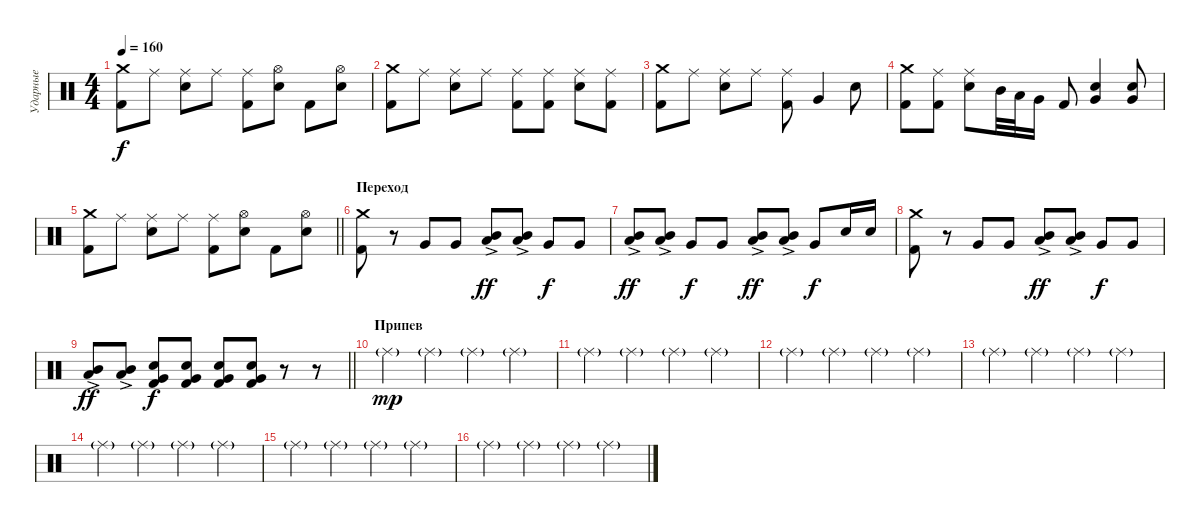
\track ("Ударные" "Ударные") {instrument percussion}
\staff {score}
\articulation defaults
\ts (4 4)
\tempo 160
\clef neutral
\ks c
("Crash medium (hit)" "Kick (hit) 2").8{dy f} "Ride (middle)".8 ("Ride (middle)" "Snare (hit) 2").8 "Ride (middle)".8 ("Ride (middle)" "Kick (hit) 2").8 ("Hi-Hat (open)" "Snare (hit) 2").8 "Kick (hit) 2".8 ("Hi-Hat (open)" "Snare (hit) 2").8 |
("Crash medium (hit)" "Kick (hit) 2").8 "Ride (middle)".8 ("Ride (middle)" "Snare (hit) 2").8 "Ride (middle)".8 ("Ride (middle)" "Kick (hit) 2").8 ("Ride (middle)" "Kick (hit) 2").8 ("Ride (middle)" "Snare (hit) 2").8 ("Ride (middle)" "Kick (hit) 2").8 |
("Crash medium (hit)" "Kick (hit) 2").8 "Ride (middle)".8 ("Ride (middle)" "Snare (hit) 2").8 "Ride (middle)".8 ("Ride (middle)" "Kick (hit) 2").8 "Very Low Tom (hit)".4 "Snare (hit) 2".8 |
("Crash medium (hit)" "Kick (hit) 2").8 ("Ride (middle)" "Kick (hit) 2").8 ("Ride (middle)" "Snare (hit) 2").8 "Mid Tom (hit)".32 "Low Tom (hit)".32 "Very Low Tom (hit)".16 "Kick (hit) 2".8 ("Very Low Tom (hit)" "Snare (hit) 2").4 ("Very Low Tom (hit)" "Snare (hit) 2").8 |
\barLineRight lightlight
("Crash medium (hit)" "Kick (hit) 2").8 "Ride (middle)".8 ("Ride (middle)" "Snare (hit) 2").8 "Ride (middle)".8 ("Ride (middle)" "Kick (hit) 2").8 ("Hi-Hat (open)" "Snare (hit) 2").8 "Kick (hit) 2".8 ("Hi-Hat (open)" "Snare (hit) 2").8 |
\section ("" "Переход")
("Crash medium (hit)" "Kick (hit) 2").8 r.8 "Very Low Tom (hit)".8 "Very Low Tom (hit)".8 ("Low Tom (hit)"{ac} "Mid Tom (hit)").8{dy ff} ("Low Tom (hit)"{ac} "Mid Tom (hit)").8 "Very Low Tom (hit)".8{dy f} "Very Low Tom (hit)".8 |
("Low Tom (hit)"{ac} "Mid Tom (hit)").8{dy ff} ("Low Tom (hit)"{ac} "Mid Tom (hit)").8 "Very Low Tom (hit)".8{dy f} "Very Low Tom (hit)".8 ("Low Tom (hit)"{ac} "Mid Tom (hit)").8{dy ff} ("Low Tom (hit)"{ac} "Mid Tom (hit)").8 "Very Low Tom (hit)".8{dy f} "Snare (hit) 2".16 "Snare (hit) 2".16 |
("Crash medium (hit)" "Kick (hit) 2").8 r.8 "Very Low Tom (hit)".8 "Very Low Tom (hit)".8 ("Low Tom (hit)"{ac} "Mid Tom (hit)").8{dy ff} ("Low Tom (hit)"{ac} "Mid Tom (hit)").8 "Very Low Tom (hit)".8{dy f} "Very Low Tom (hit)".8 |
\barLineRight lightlight
("Low Tom (hit)"{ac} "Mid Tom (hit)").8{dy ff} ("Low Tom (hit)"{ac} "Mid Tom (hit)").8 ("Very Low Tom (hit)" "Snare (hit) 2" "Kick (hit) 2").8{dy f} ("Very Low Tom (hit)" "Snare (hit) 2" "Kick (hit) 2").8 ("Very Low Tom (hit)" "Snare (hit) 2" "Kick (hit) 2").8 ("Very Low Tom (hit)" "Snare (hit) 2" "Kick (hit) 2").8 r.8 r.8 |
\section ("" "Припев")
"Ride (middle)"{g}.4{dy mp} "Ride (middle)"{g}.4 "Ride (middle)"{g}.4 "Ride (middle)"{g}.4 |
"Ride (middle)"{g}.4 "Ride (middle)"{g}.4 "Ride (middle)"{g}.4 "Ride (middle)"{g}.4 |
"Ride (middle)"{g}.4 "Ride (middle)"{g}.4 "Ride (middle)"{g}.4 "Ride (middle)"{g}.4 |
"Ride (middle)"{g}.4 "Ride (middle)"{g}.4 "Ride (middle)"{g}.4 "Ride (middle)"{g}.4 |
"Ride (middle)"{g}.4 "Ride (middle)"{g}.4 "Ride (middle)"{g}.4 "Ride (middle)"{g}.4 |
"Ride (middle)"{g}.4 "Ride (middle)"{g}.4 "Ride (middle)"{g}.4 "Ride (middle)"{g}.4 |
"Ride (middle)"{g}.4 "Ride (middle)"{g}.4 "Ride (middle)"{g}.4 "Ride (middle)"{g}.4
